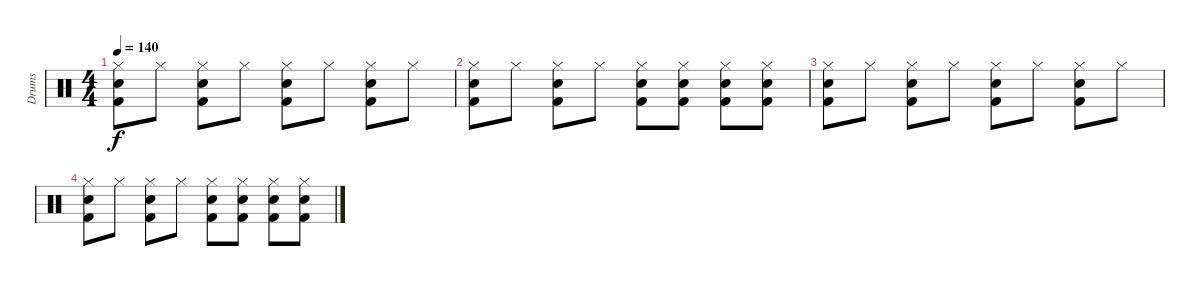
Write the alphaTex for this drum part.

\track ("Drums" "Drums") {instrument percussion}
\staff {score}
\articulation defaults
\ts (4 4)
\tempo 140
\clef neutral
\ks c
("Hi-Hat (closed)" "Snare (hit) 2" "Kick (hit) 2").8{dy f} "Hi-Hat (closed)".8 ("Hi-Hat (closed)" "Snare (hit) 2" "Kick (hit) 2").8 "Hi-Hat (closed)".8 ("Hi-Hat (closed)" "Snare (hit) 2" "Kick (hit) 2").8 "Hi-Hat (closed)".8 ("Hi-Hat (closed)" "Snare (hit) 2" "Kick (hit) 2").8 "Hi-Hat (closed)".8 |
("Hi-Hat (closed)" "Snare (hit) 2" "Kick (hit) 2").8 "Hi-Hat (closed)".8 ("Hi-Hat (closed)" "Snare (hit) 2" "Kick (hit) 2").8 "Hi-Hat (closed)".8 ("Hi-Hat (closed)" "Snare (hit) 2" "Kick (hit) 2").8 ("Hi-Hat (closed)" "Snare (hit) 2" "Kick (hit) 2").8 ("Hi-Hat (closed)" "Snare (hit) 2" "Kick (hit) 2").8 ("Hi-Hat (closed)" "Snare (hit) 2" "Kick (hit) 2").8 |
("Hi-Hat (closed)" "Snare (hit) 2" "Kick (hit) 2").8 "Hi-Hat (closed)".8 ("Hi-Hat (closed)" "Snare (hit) 2" "Kick (hit) 2").8 "Hi-Hat (closed)".8 ("Hi-Hat (closed)" "Snare (hit) 2" "Kick (hit) 2").8 "Hi-Hat (closed)".8 ("Hi-Hat (closed)" "Snare (hit) 2" "Kick (hit) 2").8 "Hi-Hat (closed)".8 |
("Hi-Hat (closed)" "Snare (hit) 2" "Kick (hit) 2").8 "Hi-Hat (closed)".8 ("Hi-Hat (closed)" "Snare (hit) 2" "Kick (hit) 2").8 "Hi-Hat (closed)".8 ("Hi-Hat (closed)" "Snare (hit) 2" "Kick (hit) 2").8 ("Hi-Hat (closed)" "Snare (hit) 2" "Kick (hit) 2").8 ("Hi-Hat (closed)" "Snare (hit) 2" "Kick (hit) 2").8 ("Hi-Hat (closed)" "Snare (hit) 2" "Kick (hit) 2").8
